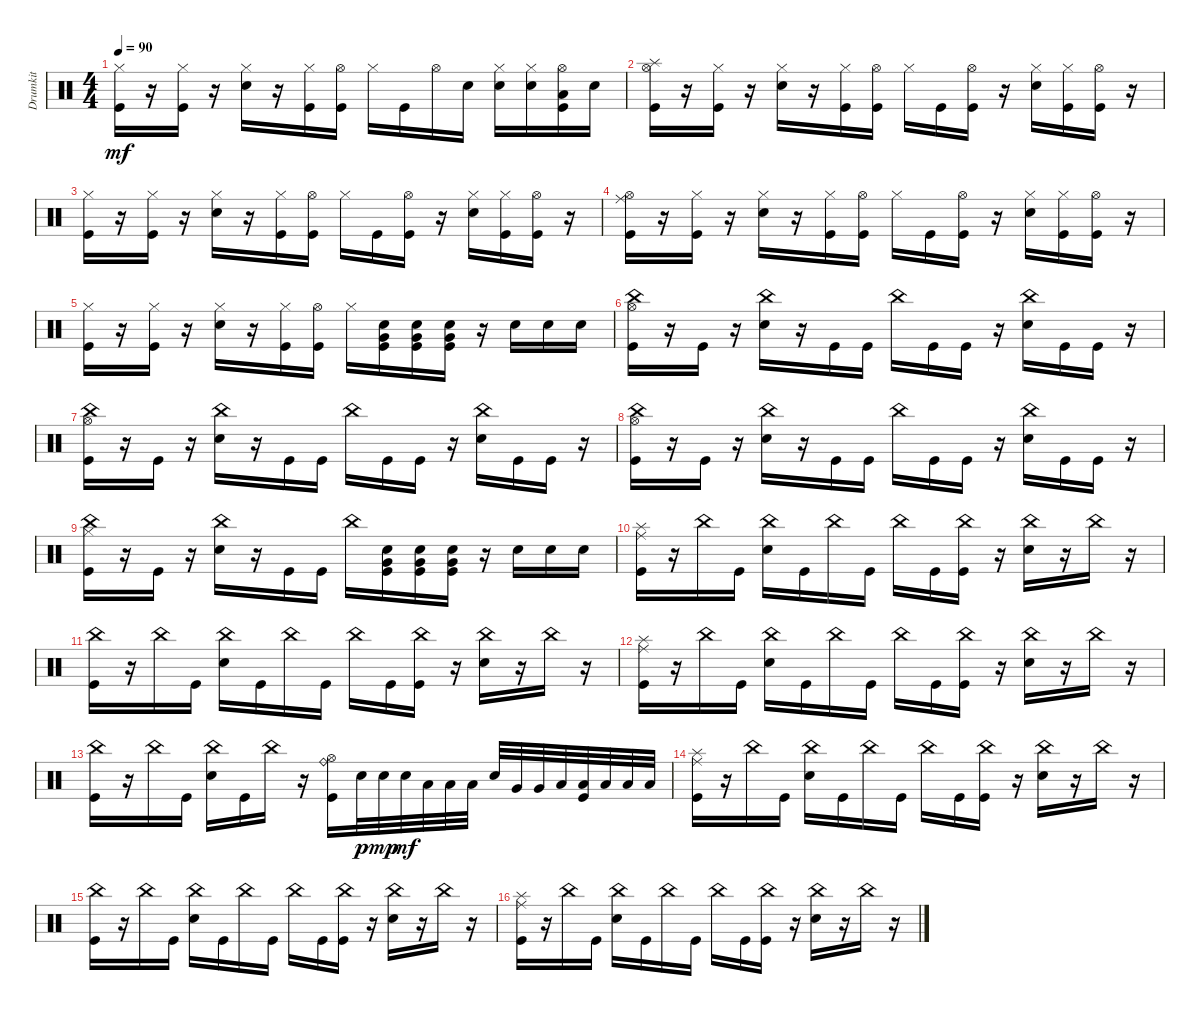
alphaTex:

\track ("Drumkit" "Drumkit") {instrument percussion}
\staff {score}
\articulation defaults
\ts (4 4)
\tempo 90
\clef neutral
\ks c
("Kick (hit)" "Hi-Hat (closed)").16{dy mf} r.16 ("Kick (hit)" "Hi-Hat (closed)").16 r.16 ("Snare (hit) 2" "Hi-Hat (closed)").16 r.16 ("Kick (hit)" "Hi-Hat (closed)").16 ("Kick (hit)" "Hi-Hat (open)").16 "Hi-Hat (closed)".16 "Kick (hit)".16 "Hi-Hat (open)".16 "Snare (hit) 2".16 ("Hi-Hat (closed)" "Snare (hit) 2").16 ("Hi-Hat (closed)" "Snare (hit) 2").16 ("Kick (hit)" "Hi-Hat (open)" "Low Floor Tom (hit)").16 "Snare (hit) 2".16 |
("Kick (hit)" "Hi-Hat (open)" "Splash (hit)").16 r.16 ("Kick (hit)" "Hi-Hat (closed)").16 r.16 ("Snare (hit) 2" "Hi-Hat (closed)").16 r.16 ("Kick (hit)" "Hi-Hat (closed)").16 ("Kick (hit)" "Hi-Hat (open)").16 "Hi-Hat (closed)".16 "Kick (hit)".16 ("Kick (hit)" "Hi-Hat (open)").16 r.16 ("Snare (hit) 2" "Hi-Hat (closed)").16 ("Kick (hit)" "Hi-Hat (closed)").16 ("Kick (hit)" "Hi-Hat (open)").16 r.16 |
("Kick (hit)" "Hi-Hat (closed)").16 r.16 ("Kick (hit)" "Hi-Hat (closed)").16 r.16 ("Snare (hit) 2" "Hi-Hat (closed)").16 r.16 ("Kick (hit)" "Hi-Hat (closed)").16 ("Kick (hit)" "Hi-Hat (open)").16 "Hi-Hat (closed)".16 "Kick (hit)".16 ("Kick (hit)" "Hi-Hat (open)").16 r.16 ("Snare (hit) 2" "Hi-Hat (closed)").16 ("Kick (hit)" "Hi-Hat (closed)").16 ("Kick (hit)" "Hi-Hat (open)").16 r.16 |
("Kick (hit)" "Hi-Hat (open)" "Ride (middle)").16 r.16 ("Kick (hit)" "Hi-Hat (closed)").16 r.16 ("Snare (hit) 2" "Hi-Hat (closed)").16 r.16 ("Kick (hit)" "Hi-Hat (closed)").16 ("Kick (hit)" "Hi-Hat (open)").16 "Hi-Hat (closed)".16 "Kick (hit)".16 ("Kick (hit)" "Hi-Hat (open)").16 r.16 ("Snare (hit) 2" "Hi-Hat (closed)").16 ("Kick (hit)" "Hi-Hat (closed)").16 ("Kick (hit)" "Hi-Hat (open)").16 r.16 |
("Kick (hit)" "Hi-Hat (closed)").16 r.16 ("Kick (hit)" "Hi-Hat (closed)").16 r.16 ("Snare (hit) 2" "Hi-Hat (closed)").16 r.16 ("Kick (hit)" "Hi-Hat (closed)").16 ("Kick (hit)" "Hi-Hat (open)").16 "Hi-Hat (closed)".16 ("Very Low Tom (hit)" "Snare (hit) 2" "Kick (hit)").16 ("Very Low Tom (hit)" "Snare (hit) 2" "Kick (hit)").16 ("Very Low Tom (hit)" "Snare (hit) 2" "Kick (hit)").16 r.16 "Snare (hit) 2".16 "Snare (hit) 2".16 "Snare (hit) 2".16 |
("Kick (hit)" "Hi-Hat (open)" "China (hit)").16 r.16 "Kick (hit)".16 r.16 ("Snare (hit) 2" "China (hit)").16 r.16 "Kick (hit)".16 "Kick (hit)".16 "China (hit)".16 "Kick (hit)".16 "Kick (hit)".16 r.16 ("Snare (hit) 2" "China (hit)").16 "Kick (hit)".16 "Kick (hit)".16 r.16 |
("Kick (hit)" "Hi-Hat (open)" "China (hit)").16 r.16 "Kick (hit)".16 r.16 ("Snare (hit) 2" "China (hit)").16 r.16 "Kick (hit)".16 "Kick (hit)".16 "China (hit)".16 "Kick (hit)".16 "Kick (hit)".16 r.16 ("Snare (hit) 2" "China (hit)").16 "Kick (hit)".16 "Kick (hit)".16 r.16 |
("Kick (hit)" "Hi-Hat (open)" "China (hit)").16 r.16 "Kick (hit)".16 r.16 ("Snare (hit) 2" "China (hit)").16 r.16 "Kick (hit)".16 "Kick (hit)".16 "China (hit)".16 "Kick (hit)".16 "Kick (hit)".16 r.16 ("Snare (hit) 2" "China (hit)").16 "Kick (hit)".16 "Kick (hit)".16 r.16 |
("Kick (hit)" "Hi-Hat (closed)" "China (hit)").16 r.16 "Kick (hit)".16 r.16 ("Snare (hit) 2" "China (hit)").16 r.16 "Kick (hit)".16 "Kick (hit)".16 "China (hit)".16 ("Very Low Tom (hit)" "Snare (hit) 2" "Kick (hit)").16 ("Very Low Tom (hit)" "Snare (hit) 2" "Kick (hit)").16 ("Very Low Tom (hit)" "Snare (hit) 2" "Kick (hit)").16 r.16 "Snare (hit) 2".16 "Snare (hit) 2".16 "Snare (hit) 2".16 |
("Kick (hit)" "Splash (hit)" "Ride (middle)").16 r.16 "China (hit)".16 "Kick (hit)".16 ("Snare (hit) 2" "China (hit)").16 "Kick (hit)".16 "China (hit)".16 "Kick (hit)".16 "China (hit)".16 "Kick (hit)".16 ("Kick (hit)" "China (hit)").16 r.16 ("Snare (hit) 2" "China (hit)").16 r.16 "China (hit)".16 r.16 |
("Kick (hit)" "China (hit)").16 r.16 "China (hit)".16 "Kick (hit)".16 ("Snare (hit) 2" "China (hit)").16 "Kick (hit)".16 "China (hit)".16 "Kick (hit)".16 "China (hit)".16 "Kick (hit)".16 ("Kick (hit)" "China (hit)").16 r.16 ("Snare (hit) 2" "China (hit)").16 r.16 "China (hit)".16 r.16 |
("Kick (hit)" "Splash (hit)" "Ride (middle)").16 r.16 "China (hit)".16 "Kick (hit)".16 ("Snare (hit) 2" "China (hit)").16 "Kick (hit)".16 "China (hit)".16 "Kick (hit)".16 "China (hit)".16 "Kick (hit)".16 ("Kick (hit)" "China (hit)").16 r.16 ("Snare (hit) 2" "China (hit)").16 r.16 "China (hit)".16 r.16 |
("Kick (hit)" "China (hit)").16 r.16 "China (hit)".16 "Kick (hit)".16 ("Snare (hit) 2" "China (hit)").16 "Kick (hit)".16 "China (hit)".16 r.16 ("Kick (hit)" "Hi-Hat (open)" "Ride (bell)").16 "Snare (hit) 2".32{dy p} "Snare (hit) 2".32{dy mp} "Snare (hit) 2".32{dy mf} "Low Tom (hit)".32 "Low Tom (hit)".32 "Low Floor Tom (hit)".32 "Snare (hit) 2".32 "Very Low Tom (hit)".32 "Very Low Tom (hit)".32 "Low Floor Tom (hit)".32 ("Low Tom (hit)" "Kick (hit)").32 "Low Floor Tom (hit)".32 "Low Floor Tom (hit)".32 "Low Floor Tom (hit)".32 |
("Kick (hit)" "Splash (hit)" "Ride (middle)").16 r.16 "China (hit)".16 "Kick (hit)".16 ("Snare (hit) 2" "China (hit)").16 "Kick (hit)".16 "China (hit)".16 "Kick (hit)".16 "China (hit)".16 "Kick (hit)".16 ("Kick (hit)" "China (hit)").16 r.16 ("Snare (hit) 2" "China (hit)").16 r.16 "China (hit)".16 r.16 |
("Kick (hit)" "China (hit)").16 r.16 "China (hit)".16 "Kick (hit)".16 ("Snare (hit) 2" "China (hit)").16 "Kick (hit)".16 "China (hit)".16 "Kick (hit)".16 "China (hit)".16 "Kick (hit)".16 ("Kick (hit)" "China (hit)").16 r.16 ("Snare (hit) 2" "China (hit)").16 r.16 "China (hit)".16 r.16 |
("Kick (hit)" "Splash (hit)" "Ride (middle)").16 r.16 "China (hit)".16 "Kick (hit)".16 ("Snare (hit) 2" "China (hit)").16 "Kick (hit)".16 "China (hit)".16 "Kick (hit)".16 "China (hit)".16 "Kick (hit)".16 ("Kick (hit)" "China (hit)").16 r.16 ("Snare (hit) 2" "China (hit)").16 r.16 "China (hit)".16 r.16
